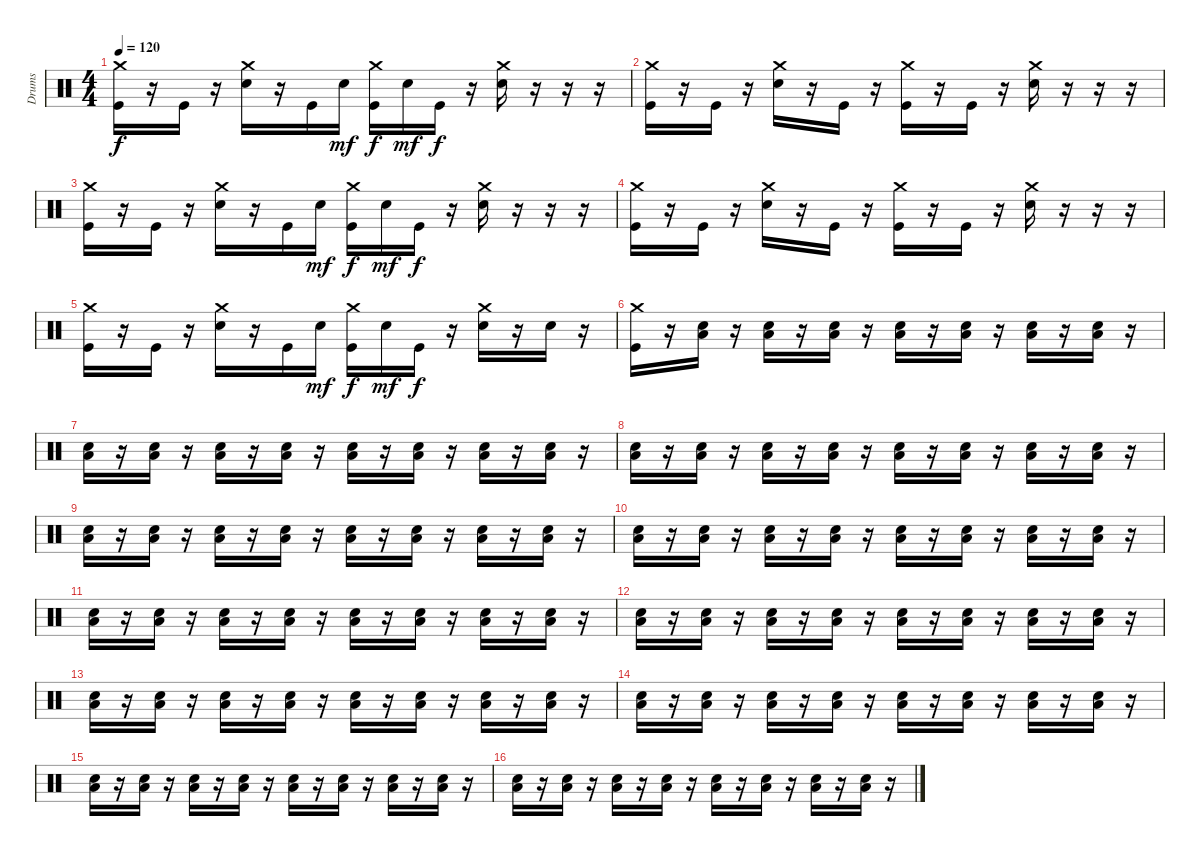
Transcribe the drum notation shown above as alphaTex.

\track ("Drums" "Drums") {instrument percussion}
\staff {score}
\articulation defaults
\ts (4 4)
\tempo 120
\clef neutral
\ks c
("Kick (hit)" "Crash medium (hit)").16{dy f} r.16 "Kick (hit)".16 r.16 ("Electric Snare (hit)" "Crash medium (hit)").16 r.16 "Kick (hit)".16 "Electric Snare (hit)".16{dy mf} ("Kick (hit)" "Crash medium (hit)").16{dy f} "Electric Snare (hit)".16{dy mf} "Kick (hit)".16{dy f} r.16 ("Electric Snare (hit)" "Crash medium (hit)").16 r.16 r.16 r.16 |
("Kick (hit)" "Crash medium (hit)").16 r.16 "Kick (hit)".16 r.16 ("Electric Snare (hit)" "Crash medium (hit)").16 r.16 "Kick (hit)".16 r.16 ("Kick (hit)" "Crash medium (hit)").16 r.16 "Kick (hit)".16 r.16 ("Electric Snare (hit)" "Crash medium (hit)").16 r.16 r.16 r.16 |
("Kick (hit)" "Crash medium (hit)").16 r.16 "Kick (hit)".16 r.16 ("Electric Snare (hit)" "Crash medium (hit)").16 r.16 "Kick (hit)".16 "Electric Snare (hit)".16{dy mf} ("Kick (hit)" "Crash medium (hit)").16{dy f} "Electric Snare (hit)".16{dy mf} "Kick (hit)".16{dy f} r.16 ("Electric Snare (hit)" "Crash medium (hit)").16 r.16 r.16 r.16 |
("Kick (hit)" "Crash medium (hit)").16 r.16 "Kick (hit)".16 r.16 ("Electric Snare (hit)" "Crash medium (hit)").16 r.16 "Kick (hit)".16 r.16 ("Kick (hit)" "Crash medium (hit)").16 r.16 "Kick (hit)".16 r.16 ("Electric Snare (hit)" "Crash medium (hit)").16 r.16 r.16 r.16 |
("Kick (hit)" "Crash medium (hit)").16 r.16 "Kick (hit)".16 r.16 ("Electric Snare (hit)" "Crash medium (hit)").16 r.16 "Kick (hit)".16 "Electric Snare (hit)".16{dy mf} ("Kick (hit)" "Crash medium (hit)").16{dy f} "Electric Snare (hit)".16{dy mf} "Kick (hit)".16{dy f} r.16 ("Electric Snare (hit)" "Crash medium (hit)").16 r.16 "Electric Snare (hit)".16 r.16 |
("Kick (hit)" "Crash medium (hit)").16 r.16{volume 3} ("Electric Snare (hit)" "Low Floor Tom (hit)").16{volume 6} r.16 ("Electric Snare (hit)" "Low Floor Tom (hit)").16 r.16 ("Electric Snare (hit)" "Low Floor Tom (hit)").16 r.16 ("Electric Snare (hit)" "Low Floor Tom (hit)").16 r.16 ("Electric Snare (hit)" "Low Floor Tom (hit)").16 r.16 ("Electric Snare (hit)" "Low Floor Tom (hit)").16 r.16 ("Electric Snare (hit)" "Low Floor Tom (hit)").16 r.16 |
("Electric Snare (hit)" "Low Floor Tom (hit)").16 r.16 ("Electric Snare (hit)" "Low Floor Tom (hit)").16 r.16 ("Electric Snare (hit)" "Low Floor Tom (hit)").16 r.16 ("Electric Snare (hit)" "Low Floor Tom (hit)").16 r.16 ("Electric Snare (hit)" "Low Floor Tom (hit)").16 r.16 ("Electric Snare (hit)" "Low Floor Tom (hit)").16 r.16 ("Electric Snare (hit)" "Low Floor Tom (hit)").16 r.16 ("Electric Snare (hit)" "Low Floor Tom (hit)").16 r.16 |
("Electric Snare (hit)" "Low Floor Tom (hit)").16 r.16 ("Electric Snare (hit)" "Low Floor Tom (hit)").16 r.16 ("Electric Snare (hit)" "Low Floor Tom (hit)").16 r.16 ("Electric Snare (hit)" "Low Floor Tom (hit)").16 r.16 ("Electric Snare (hit)" "Low Floor Tom (hit)").16 r.16 ("Electric Snare (hit)" "Low Floor Tom (hit)").16 r.16 ("Electric Snare (hit)" "Low Floor Tom (hit)").16 r.16 ("Electric Snare (hit)" "Low Floor Tom (hit)").16 r.16 |
("Electric Snare (hit)" "Low Floor Tom (hit)").16 r.16 ("Electric Snare (hit)" "Low Floor Tom (hit)").16 r.16 ("Electric Snare (hit)" "Low Floor Tom (hit)").16 r.16 ("Electric Snare (hit)" "Low Floor Tom (hit)").16 r.16 ("Electric Snare (hit)" "Low Floor Tom (hit)").16 r.16 ("Electric Snare (hit)" "Low Floor Tom (hit)").16 r.16 ("Electric Snare (hit)" "Low Floor Tom (hit)").16 r.16 ("Electric Snare (hit)" "Low Floor Tom (hit)").16 r.16 |
("Electric Snare (hit)" "Low Floor Tom (hit)").16 r.16 ("Electric Snare (hit)" "Low Floor Tom (hit)").16 r.16 ("Electric Snare (hit)" "Low Floor Tom (hit)").16{volume 11} r.16 ("Electric Snare (hit)" "Low Floor Tom (hit)").16 r.16 ("Electric Snare (hit)" "Low Floor Tom (hit)").16 r.16 ("Electric Snare (hit)" "Low Floor Tom (hit)").16 r.16 ("Electric Snare (hit)" "Low Floor Tom (hit)").16 r.16 ("Electric Snare (hit)" "Low Floor Tom (hit)").16 r.16 |
("Electric Snare (hit)" "Low Floor Tom (hit)").16 r.16 ("Electric Snare (hit)" "Low Floor Tom (hit)").16 r.16 ("Electric Snare (hit)" "Low Floor Tom (hit)").16 r.16 ("Electric Snare (hit)" "Low Floor Tom (hit)").16 r.16 ("Electric Snare (hit)" "Low Floor Tom (hit)").16 r.16 ("Electric Snare (hit)" "Low Floor Tom (hit)").16 r.16 ("Electric Snare (hit)" "Low Floor Tom (hit)").16 r.16 ("Electric Snare (hit)" "Low Floor Tom (hit)").16 r.16 |
("Electric Snare (hit)" "Low Floor Tom (hit)").16 r.16 ("Electric Snare (hit)" "Low Floor Tom (hit)").16 r.16 ("Electric Snare (hit)" "Low Floor Tom (hit)").16 r.16 ("Electric Snare (hit)" "Low Floor Tom (hit)").16 r.16 ("Electric Snare (hit)" "Low Floor Tom (hit)").16 r.16 ("Electric Snare (hit)" "Low Floor Tom (hit)").16 r.16 ("Electric Snare (hit)" "Low Floor Tom (hit)").16 r.16 ("Electric Snare (hit)" "Low Floor Tom (hit)").16 r.16 |
("Electric Snare (hit)" "Low Floor Tom (hit)").16 r.16 ("Electric Snare (hit)" "Low Floor Tom (hit)").16 r.16 ("Electric Snare (hit)" "Low Floor Tom (hit)").16 r.16 ("Electric Snare (hit)" "Low Floor Tom (hit)").16 r.16 ("Electric Snare (hit)" "Low Floor Tom (hit)").16 r.16 ("Electric Snare (hit)" "Low Floor Tom (hit)").16 r.16 ("Electric Snare (hit)" "Low Floor Tom (hit)").16 r.16 ("Electric Snare (hit)" "Low Floor Tom (hit)").16 r.16 |
("Electric Snare (hit)" "Low Floor Tom (hit)").16 r.16 ("Electric Snare (hit)" "Low Floor Tom (hit)").16 r.16 ("Electric Snare (hit)" "Low Floor Tom (hit)").16 r.16 ("Electric Snare (hit)" "Low Floor Tom (hit)").16{volume 16} r.16 ("Electric Snare (hit)" "Low Floor Tom (hit)").16 r.16 ("Electric Snare (hit)" "Low Floor Tom (hit)").16 r.16 ("Electric Snare (hit)" "Low Floor Tom (hit)").16 r.16 ("Electric Snare (hit)" "Low Floor Tom (hit)").16 r.16 |
("Electric Snare (hit)" "Low Floor Tom (hit)").16 r.16 ("Electric Snare (hit)" "Low Floor Tom (hit)").16 r.16 ("Electric Snare (hit)" "Low Floor Tom (hit)").16 r.16 ("Electric Snare (hit)" "Low Floor Tom (hit)").16 r.16 ("Electric Snare (hit)" "Low Floor Tom (hit)").16 r.16 ("Electric Snare (hit)" "Low Floor Tom (hit)").16 r.16 ("Electric Snare (hit)" "Low Floor Tom (hit)").16 r.16 ("Electric Snare (hit)" "Low Floor Tom (hit)").16 r.16 |
("Electric Snare (hit)" "Low Floor Tom (hit)").16 r.16 ("Electric Snare (hit)" "Low Floor Tom (hit)").16 r.16 ("Electric Snare (hit)" "Low Floor Tom (hit)").16 r.16 ("Electric Snare (hit)" "Low Floor Tom (hit)").16 r.16 ("Electric Snare (hit)" "Low Floor Tom (hit)").16 r.16 ("Electric Snare (hit)" "Low Floor Tom (hit)").16 r.16 ("Electric Snare (hit)" "Low Floor Tom (hit)").16 r.16 ("Electric Snare (hit)" "Low Floor Tom (hit)").16 r.16
